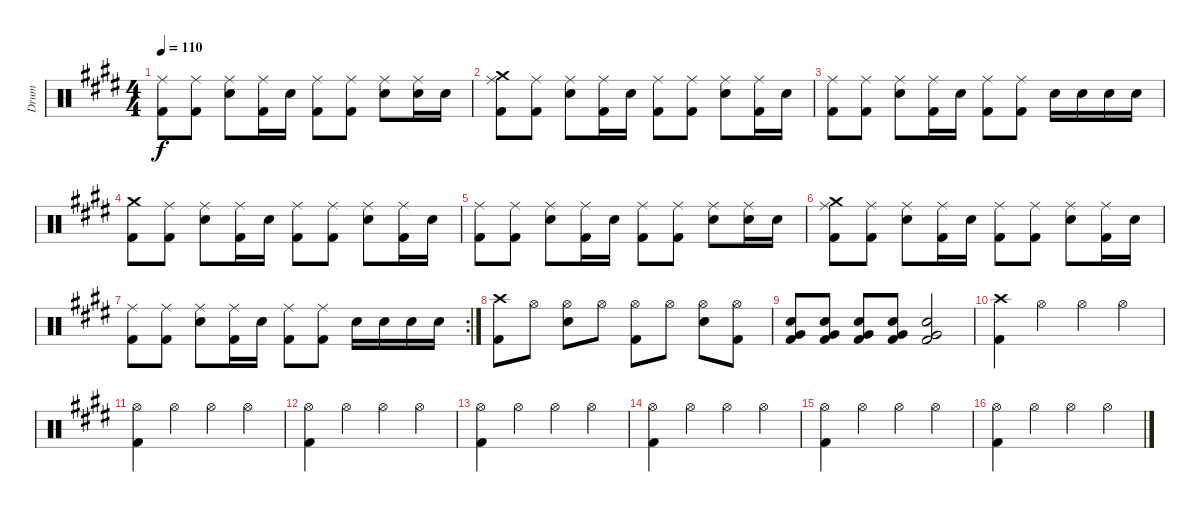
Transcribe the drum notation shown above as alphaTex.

\track ("Drum" "Drum") {instrument percussion}
\staff {score}
\articulation defaults
\ts (4 4)
\tempo 110
\clef neutral
\ks c#minor
("Ride (middle)" "Kick (hit) 2").8{dy f} ("Ride (middle)" "Kick (hit) 2").8 ("Ride (middle)" "Snare (hit) 2").8 ("Ride (middle)" "Kick (hit) 2").16 "Snare (hit) 2".16 ("Ride (middle)" "Kick (hit) 2").8 ("Ride (middle)" "Kick (hit) 2").8 ("Ride (middle)" "Snare (hit) 2").8 ("Ride (middle)" "Snare (hit) 2").16 "Snare (hit) 2".16 |
("Ride (middle)" "Kick (hit) 2" "Crash medium (hit)").8 ("Ride (middle)" "Kick (hit) 2").8 ("Ride (middle)" "Snare (hit) 2").8 ("Ride (middle)" "Kick (hit) 2").16 "Snare (hit) 2".16 ("Ride (middle)" "Kick (hit) 2").8 ("Ride (middle)" "Kick (hit) 2").8 ("Ride (middle)" "Snare (hit) 2").8 ("Ride (middle)" "Kick (hit) 2").16 "Snare (hit) 2".16 |
("Ride (middle)" "Kick (hit) 2").8 ("Ride (middle)" "Kick (hit) 2").8 ("Ride (middle)" "Snare (hit) 2").8 ("Ride (middle)" "Kick (hit) 2").16 "Snare (hit) 2".16 ("Ride (middle)" "Kick (hit) 2").8 ("Ride (middle)" "Kick (hit) 2").8 "Snare (hit) 2".16 "Snare (hit) 2".16 "Snare (hit) 2".16 "Snare (hit) 2".16 |
("Crash medium (hit)" "Kick (hit) 2").8 ("Ride (middle)" "Kick (hit) 2").8 ("Ride (middle)" "Snare (hit) 2").8 ("Ride (middle)" "Kick (hit) 2").16 "Snare (hit) 2".16 ("Ride (middle)" "Kick (hit) 2").8 ("Ride (middle)" "Kick (hit) 2").8 ("Ride (middle)" "Snare (hit) 2").8 ("Ride (middle)" "Kick (hit) 2").16 "Snare (hit) 2".16 |
("Ride (middle)" "Kick (hit) 2").8 ("Ride (middle)" "Kick (hit) 2").8 ("Ride (middle)" "Snare (hit) 2").8 ("Ride (middle)" "Kick (hit) 2").16 "Snare (hit) 2".16 ("Ride (middle)" "Kick (hit) 2").8 ("Ride (middle)" "Kick (hit) 2").8 ("Ride (middle)" "Snare (hit) 2").8 ("Ride (middle)" "Snare (hit) 2").16 "Snare (hit) 2".16 |
("Ride (middle)" "Kick (hit) 2" "Crash medium (hit)").8 ("Ride (middle)" "Kick (hit) 2").8 ("Ride (middle)" "Snare (hit) 2").8 ("Ride (middle)" "Kick (hit) 2").16 "Snare (hit) 2".16 ("Ride (middle)" "Kick (hit) 2").8 ("Ride (middle)" "Kick (hit) 2").8 ("Ride (middle)" "Snare (hit) 2").8 ("Ride (middle)" "Kick (hit) 2").16 "Snare (hit) 2".16 |
\rc 2
("Ride (middle)" "Kick (hit) 2").8 ("Ride (middle)" "Kick (hit) 2").8 ("Ride (middle)" "Snare (hit) 2").8 ("Ride (middle)" "Kick (hit) 2").16 "Snare (hit) 2".16 ("Ride (middle)" "Kick (hit) 2").8 ("Ride (middle)" "Kick (hit) 2").8 "Snare (hit) 2".16 "Snare (hit) 2".16 "Snare (hit) 2".16 "Snare (hit) 2".16 |
("Crash high (hit)" "Kick (hit) 2").8 "Hi-Hat (open)".8 ("Hi-Hat (open)" "Snare (hit) 2").8 "Hi-Hat (open)".8 ("Hi-Hat (open)" "Kick (hit) 2").8 "Hi-Hat (open)".8 ("Hi-Hat (open)" "Snare (hit) 2").8 ("Hi-Hat (open)" "Kick (hit) 2").8 |
("Snare (hit) 2" "Kick (hit) 2" "Very Low Tom (hit)").8 ("Snare (hit) 2" "Kick (hit) 2" "Very Low Tom (hit)").8 ("Snare (hit) 2" "Kick (hit) 2" "Very Low Tom (hit)").8 ("Snare (hit) 2" "Kick (hit) 2" "Very Low Tom (hit)").8 ("Snare (hit) 2" "Kick (hit) 2" "Very Low Tom (hit)").2 |
("Crash high (hit)" "Kick (hit) 2").4 "Hi-Hat (open)".4 "Hi-Hat (open)".4 "Hi-Hat (open)".4 |
("Hi-Hat (open)" "Kick (hit) 2").4 "Hi-Hat (open)".4 "Hi-Hat (open)".4 "Hi-Hat (open)".4 |
("Hi-Hat (open)" "Kick (hit) 2").4 "Hi-Hat (open)".4 "Hi-Hat (open)".4 "Hi-Hat (open)".4 |
("Hi-Hat (open)" "Kick (hit) 2").4 "Hi-Hat (open)".4 "Hi-Hat (open)".4 "Hi-Hat (open)".4 |
("Hi-Hat (open)" "Kick (hit) 2").4 "Hi-Hat (open)".4 "Hi-Hat (open)".4 "Hi-Hat (open)".4 |
("Hi-Hat (open)" "Kick (hit) 2").4 "Hi-Hat (open)".4 "Hi-Hat (open)".4 "Hi-Hat (open)".4 |
("Hi-Hat (open)" "Kick (hit) 2").4 "Hi-Hat (open)".4 "Hi-Hat (open)".4 "Hi-Hat (open)".4
